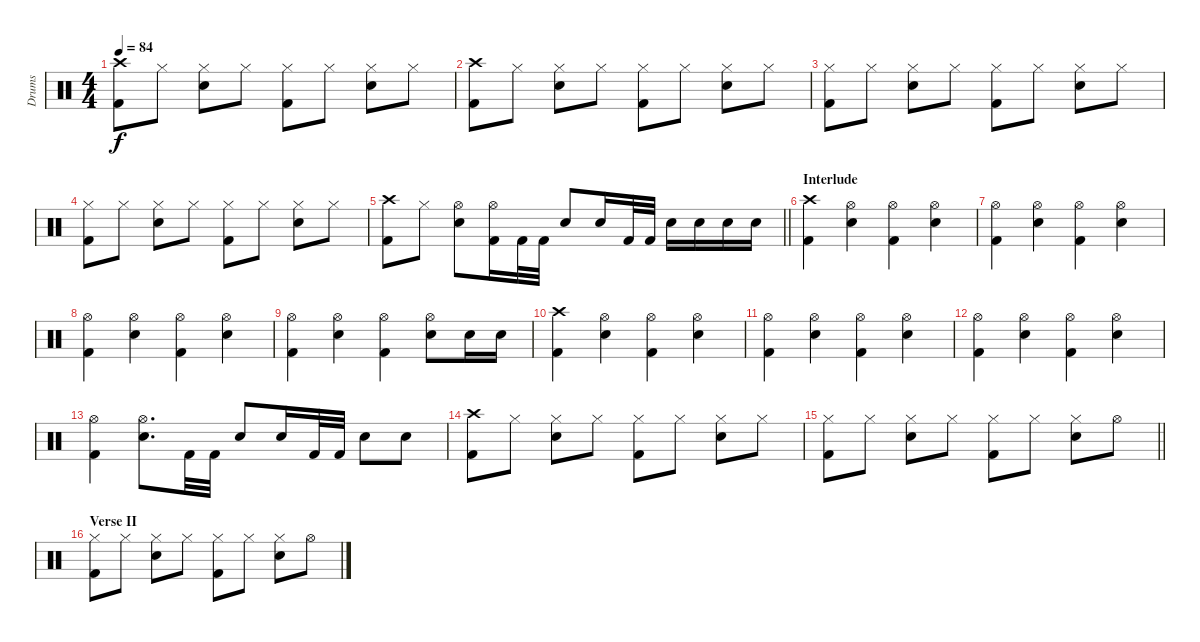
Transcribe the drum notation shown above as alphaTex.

\track ("Drums" "Drums") {instrument percussion}
\staff {score}
\articulation defaults
\ts (4 4)
\tempo 84
\clef neutral
\ks c
("Crash high (hit)" "Kick (hit) 2").8{dy f} "Hi-Hat (closed)".8 ("Hi-Hat (closed)" "Snare (hit) 2").8 "Hi-Hat (closed)".8 ("Hi-Hat (closed)" "Kick (hit) 2").8 "Hi-Hat (closed)".8 ("Hi-Hat (closed)" "Snare (hit) 2").8 "Hi-Hat (closed)".8 |
("Crash high (hit)" "Kick (hit) 2").8 "Hi-Hat (closed)".8 ("Hi-Hat (closed)" "Snare (hit) 2").8 "Hi-Hat (closed)".8 ("Hi-Hat (closed)" "Kick (hit) 2").8 "Hi-Hat (closed)".8 ("Hi-Hat (closed)" "Snare (hit) 2").8 "Hi-Hat (closed)".8 |
("Hi-Hat (closed)" "Kick (hit) 2").8 "Hi-Hat (closed)".8 ("Hi-Hat (closed)" "Snare (hit) 2").8 "Hi-Hat (closed)".8 ("Hi-Hat (closed)" "Kick (hit) 2").8 "Hi-Hat (closed)".8 ("Hi-Hat (closed)" "Snare (hit) 2").8 "Hi-Hat (closed)".8 |
("Hi-Hat (closed)" "Kick (hit) 2").8 "Hi-Hat (closed)".8 ("Hi-Hat (closed)" "Snare (hit) 2").8 "Hi-Hat (closed)".8 ("Hi-Hat (closed)" "Kick (hit) 2").8 "Hi-Hat (closed)".8 ("Hi-Hat (closed)" "Snare (hit) 2").8 "Hi-Hat (closed)".8 |
\barLineRight lightlight
("Crash high (hit)" "Kick (hit) 2").8 "Hi-Hat (closed)".8 ("Hi-Hat (open)" "Snare (hit) 2").8 ("Hi-Hat (open)" "Kick (hit) 2").16 "Kick (hit) 2".32 "Kick (hit) 2".32 "Snare (hit) 2".8 "Snare (hit) 2".16 "Kick (hit) 2".32 "Kick (hit) 2".32 "Snare (hit) 2".16 "Snare (hit) 2".16 "Electric Snare (hit)".16 "Electric Snare (hit)".16 |
\section ("" "Interlude")
("Crash high (hit)" "Kick (hit) 2").4 ("Hi-Hat (open)" "Snare (hit) 2").4 ("Hi-Hat (open)" "Kick (hit) 2").4 ("Hi-Hat (open)" "Snare (hit) 2").4 |
("Hi-Hat (open)" "Kick (hit) 2").4 ("Hi-Hat (open)" "Snare (hit) 2").4 ("Hi-Hat (open)" "Kick (hit) 2").4 ("Hi-Hat (open)" "Snare (hit) 2").4 |
("Hi-Hat (open)" "Kick (hit) 2").4 ("Hi-Hat (open)" "Snare (hit) 2").4 ("Hi-Hat (open)" "Kick (hit) 2").4 ("Hi-Hat (open)" "Snare (hit) 2").4 |
("Hi-Hat (open)" "Kick (hit) 2").4 ("Hi-Hat (open)" "Snare (hit) 2").4 ("Hi-Hat (open)" "Kick (hit) 2").4 ("Hi-Hat (open)" "Snare (hit) 2").8 "Snare (hit) 2".16 "Snare (hit) 2".16 |
("Crash high (hit)" "Kick (hit) 2").4 ("Hi-Hat (open)" "Snare (hit) 2").4 ("Hi-Hat (open)" "Kick (hit) 2").4 ("Hi-Hat (open)" "Snare (hit) 2").4 |
("Hi-Hat (open)" "Kick (hit) 2").4 ("Hi-Hat (open)" "Snare (hit) 2").4 ("Hi-Hat (open)" "Kick (hit) 2").4 ("Hi-Hat (open)" "Snare (hit) 2").4 |
("Hi-Hat (open)" "Kick (hit) 2").4 ("Hi-Hat (open)" "Snare (hit) 2").4 ("Hi-Hat (open)" "Kick (hit) 2").4 ("Hi-Hat (open)" "Snare (hit) 2").4 |
("Hi-Hat (open)" "Kick (hit) 2").4 ("Hi-Hat (open)" "Snare (hit) 2").8{d} "Kick (hit) 2".32 "Kick (hit) 2".32 "Snare (hit) 2".8 "Snare (hit) 2".16 "Kick (hit) 2".32 "Kick (hit) 2".32 "Snare (hit) 2".8 "Snare (hit) 2".8 |
("Crash high (hit)" "Kick (hit) 2").8 "Hi-Hat (closed)".8 ("Hi-Hat (closed)" "Snare (hit) 2").8 "Hi-Hat (closed)".8 ("Hi-Hat (closed)" "Kick (hit) 2").8 "Hi-Hat (closed)".8 ("Hi-Hat (closed)" "Snare (hit) 2").8 "Hi-Hat (closed)".8 |
\barLineRight lightlight
("Hi-Hat (closed)" "Kick (hit) 2").8 "Hi-Hat (closed)".8 ("Hi-Hat (closed)" "Snare (hit) 2").8 "Hi-Hat (closed)".8 ("Hi-Hat (closed)" "Kick (hit) 2").8 "Hi-Hat (closed)".8 ("Hi-Hat (closed)" "Snare (hit) 2").8 "Hi-Hat (open)".8 |
\section ("" "Verse II")
("Hi-Hat (closed)" "Kick (hit) 2").8 "Hi-Hat (closed)".8 ("Hi-Hat (closed)" "Snare (hit) 2").8 "Hi-Hat (closed)".8 ("Hi-Hat (closed)" "Kick (hit) 2").8 "Hi-Hat (closed)".8 ("Hi-Hat (closed)" "Snare (hit) 2").8 "Hi-Hat (open)".8
